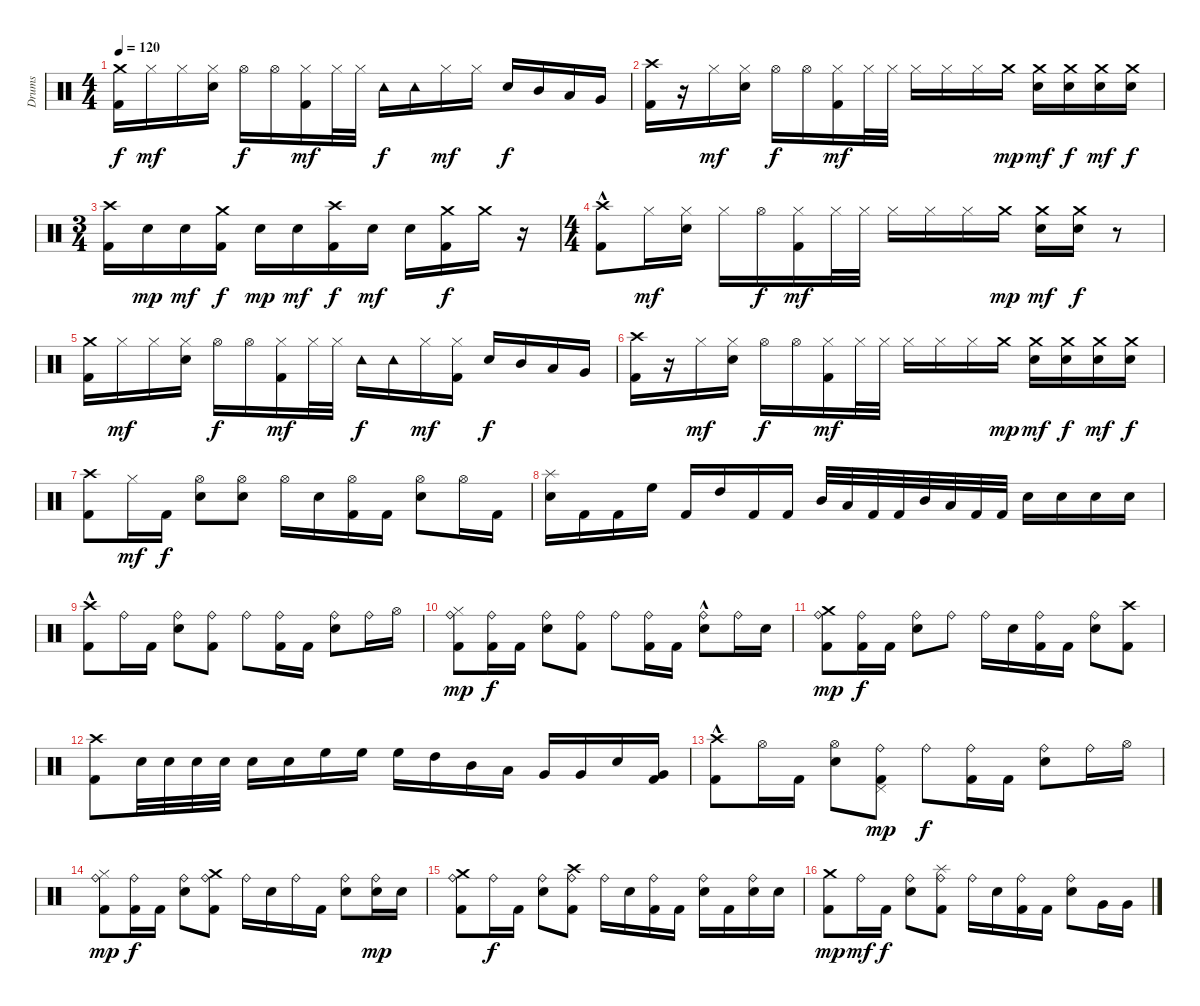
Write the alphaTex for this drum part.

\track ("Drums" "Drums") {instrument percussion}
\staff {score}
\articulation defaults
\ts (4 4)
\tempo 120
\clef neutral
\ks c
("Kick (hit) 2" "Crash medium (hit)").16{dy f} "Hi-Hat (closed)".16{dy mf} "Hi-Hat (closed)".16 ("Electric Snare (hit)" "Hi-Hat (closed)").16 "Hi-Hat (open)".16{dy f} "Hi-Hat (open)".16 ("Kick (hit) 2" "Hi-Hat (closed)").16{dy mf} "Hi-Hat (closed)".32 "Hi-Hat (closed)".32 "Tambourine (hit)".16{dy f} "Tambourine (hit)".16 "Hi-Hat (closed)".16{dy mf} "Hi-Hat (closed)".16 "Electric Snare (hit)".16{dy f} "Mid Tom (hit)".16 "Low Tom (hit)".16 "Very Low Tom (hit)".16 |
("Kick (hit) 2" "Crash high (hit)").16 r.16 "Hi-Hat (closed)".16{dy mf} ("Electric Snare (hit)" "Hi-Hat (closed)").16 "Hi-Hat (open)".16{dy f} "Hi-Hat (open)".16 ("Kick (hit) 2" "Hi-Hat (closed)").16{dy mf} "Hi-Hat (closed)".32 "Hi-Hat (closed)".32 "Hi-Hat (closed)".16 "Hi-Hat (closed)".16 "Hi-Hat (closed)".16 "Crash medium (hit)".16{dy mp} ("Electric Snare (hit)" "Crash medium (hit)").16{dy mf} ("Electric Snare (hit)" "Crash medium (hit)").16{dy f} ("Crash medium (hit)" "Electric Snare (hit)").16{dy mf} ("Electric Snare (hit)" "Crash medium (hit)").16{dy f} |
\ts (3 4)
("Kick (hit) 2" "Crash high (hit)").16 "Electric Snare (hit)".16{dy mp} "Electric Snare (hit)".16{dy mf} ("Kick (hit) 2" "Crash medium (hit)").16{dy f} "Electric Snare (hit)".16{dy mp} "Electric Snare (hit)".16{dy mf} ("Kick (hit) 2" "Crash high (hit)").16{dy f} "Electric Snare (hit)".16{dy mf} "Electric Snare (hit)".16 ("Kick (hit) 2" "Crash medium (hit)").16{dy f} "Crash medium (hit)".16 r.16 |
\ts (4 4)
("Kick (hit) 2"{hac} "Crash high (hit)").8 "Hi-Hat (closed)".16{dy mf} ("Electric Snare (hit)" "Hi-Hat (closed)").16 "Hi-Hat (closed)".16 "Hi-Hat (open)".16{dy f} ("Kick (hit) 2" "Hi-Hat (closed)").16{dy mf} "Hi-Hat (closed)".32 "Hi-Hat (closed)".32 "Hi-Hat (closed)".16 "Hi-Hat (closed)".16 "Hi-Hat (closed)".16 "Crash medium (hit)".16{dy mp} ("Electric Snare (hit)" "Crash medium (hit)").16{dy mf} ("Electric Snare (hit)" "Crash medium (hit)").16{dy f} r.8 |
("Crash medium (hit)" "Kick (hit) 2").16 "Hi-Hat (closed)".16{dy mf} "Hi-Hat (closed)".16 ("Electric Snare (hit)" "Hi-Hat (closed)").16 "Hi-Hat (open)".16{dy f} "Hi-Hat (open)".16 ("Kick (hit) 2" "Hi-Hat (closed)").16{dy mf} "Hi-Hat (closed)".32 "Hi-Hat (closed)".32 "Tambourine (hit)".16{dy f} "Tambourine (hit)".16 "Hi-Hat (closed)".16{dy mf} ("Kick (hit) 2" "Hi-Hat (closed)").16 "Electric Snare (hit)".16{dy f} "Mid Tom (hit)".16 "Low Tom (hit)".16 "Very Low Tom (hit)".16 |
("Crash high (hit)" "Kick (hit) 2").16 r.16 "Hi-Hat (closed)".16{dy mf} ("Electric Snare (hit)" "Hi-Hat (closed)").16 "Hi-Hat (open)".16{dy f} "Hi-Hat (open)".16 ("Kick (hit) 2" "Hi-Hat (closed)").16{dy mf} "Hi-Hat (closed)".32 "Hi-Hat (closed)".32 "Hi-Hat (closed)".16 "Hi-Hat (closed)".16 "Hi-Hat (closed)".16 "Crash medium (hit)".16{dy mp} ("Electric Snare (hit)" "Crash medium (hit)").16{dy mf} ("Electric Snare (hit)" "Crash medium (hit)").16{dy f} ("Crash medium (hit)" "Electric Snare (hit)").16{dy mf} ("Electric Snare (hit)" "Crash medium (hit)").16{dy f} |
("Crash high (hit)" "Kick (hit) 2").8 "Hi-Hat (closed)".16{dy mf} "Kick (hit) 2".16{dy f} ("Electric Snare (hit)" "Hi-Hat (open)").8 ("Hi-Hat (open)" "Electric Snare (hit)").8 "Hi-Hat (open)".16 "Electric Snare (hit)".16 ("Hi-Hat (open)" "Kick (hit) 2").16 "Kick (hit) 2".16 ("Electric Snare (hit)" "Hi-Hat (open)").8 "Hi-Hat (open)".16 "Kick (hit) 2".16 |
("Electric Snare (hit)" "Splash (hit)").16 "Kick (hit) 2".16 "Kick (hit) 2".16 "High Floor Tom (hit)".16 "Kick (hit) 2".16 "High Tom (hit)".16 "Kick (hit) 2".16 "Kick (hit) 2".16 "Mid Tom (hit)".32 "Low Tom (hit)".32 "Kick (hit) 2".32 "Kick (hit) 2".32 "Mid Tom (hit)".32 "Low Tom (hit)".32 "Kick (hit) 2".32 "Kick (hit) 2".32 "Electric Snare (hit)".16 "Electric Snare (hit)".16 "Electric Snare (hit)".16 "Electric Snare (hit)".16 |
("Crash high (hit)" "Kick (hit) 2"{hac}).8 "Ride (bell)".16 "Kick (hit) 2".16 ("Electric Snare (hit)" "Ride (bell)").8 ("Kick (hit) 2" "Ride (bell)").8 "Ride (bell)".8 ("Kick (hit) 2" "Ride (bell)").16 "Kick (hit) 2".16 ("Electric Snare (hit)" "Ride (bell)").8 "Ride (bell)".16 "Hi-Hat (open)".16 |
("Ride (bell)" "Hi-Hat (closed)" "Kick (hit) 2").8{dy mp} ("Ride (bell)" "Kick (hit) 2").16{dy f} "Kick (hit) 2".16 ("Electric Snare (hit)" "Ride (bell)").8 ("Kick (hit) 2" "Ride (bell)").8 "Ride (bell)".8 ("Kick (hit) 2" "Ride (bell)").16 "Kick (hit) 2".16 ("Ride (bell)" "Electric Snare (hit)"{hac}).8 "Ride (bell)".16 "Electric Snare (hit)".16 |
("Kick (hit) 2" "Ride (bell)" "Crash medium (hit)").8{dy mp} ("Ride (bell)" "Kick (hit) 2").16{dy f} "Kick (hit) 2".16 ("Electric Snare (hit)" "Ride (bell)").8 "Ride (bell)".8 "Ride (bell)".16 "Electric Snare (hit)".16 ("Kick (hit) 2" "Ride (bell)").16 "Kick (hit) 2".16 ("Ride (bell)" "Electric Snare (hit)").8 ("Crash high (hit)" "Kick (hit) 2").8 |
("Kick (hit) 2" "Crash high (hit)").8 "Electric Snare (hit)".32 "Electric Snare (hit)".32 "Electric Snare (hit)".32 "Electric Snare (hit)".32 "Electric Snare (hit)".16 "Electric Snare (hit)".16 "High Floor Tom (hit)".16 "High Floor Tom (hit)".16 "High Floor Tom (hit)".16 "High Tom (hit)".16 "Mid Tom (hit)".16 "Low Tom (hit)".16 "Very Low Tom (hit)".16 "Very Low Tom (hit)".16 "Electric Snare (hit)".16 ("Very Low Tom (hit)" "Kick (hit) 2").16 |
("Kick (hit) 2"{hac} "Crash high (hit)").8 "Hi-Hat (open)".16 "Kick (hit) 2".16 ("Electric Snare (hit)" "Hi-Hat (open)").8 ("Kick (hit) 2" "Pedal Hi-Hat (hit)" "Ride (bell)").8{dy mp} "Ride (bell)".8{dy f} ("Kick (hit) 2" "Ride (bell)").16 "Kick (hit) 2".16 ("Electric Snare (hit)" "Ride (bell)").8 "Ride (bell)".16 "Hi-Hat (open)".16 |
("Ride (bell)" "Hi-Hat (closed)" "Kick (hit) 2").8{dy mp} ("Ride (bell)" "Kick (hit) 2").16{dy f} "Kick (hit) 2".16 ("Electric Snare (hit)" "Ride (bell)").8 ("Kick (hit) 2" "Ride (bell)" "Crash medium (hit)").8 "Ride (bell)".16 "Electric Snare (hit)".16 "Ride (bell)".16 "Kick (hit) 2".16 ("Ride (bell)" "Electric Snare (hit)").8 ("Ride (bell)" "Electric Snare (hit)").16{dy mp} "Electric Snare (hit)".16 |
("Kick (hit) 2" "Ride (bell)" "Crash medium (hit)").8 "Ride (bell)".16{dy f} "Kick (hit) 2".16 ("Electric Snare (hit)" "Ride (bell)").8 ("Ride (bell)" "Kick (hit) 2" "Crash high (hit)").8 "Ride (bell)".16 "Electric Snare (hit)".16 ("Kick (hit) 2" "Ride (bell)").16 "Kick (hit) 2".16 ("Ride (bell)" "Electric Snare (hit)").16 "Kick (hit) 2".16 ("Electric Snare (hit)" "Ride (bell)").16 "Electric Snare (hit)".16 |
("Crash medium (hit)" "Kick (hit) 2").8{dy mp} "Ride (bell)".16{dy mf} "Kick (hit) 2".16{dy f} ("Electric Snare (hit)" "Ride (bell)").8 ("Ride (bell)" "Kick (hit) 2" "Splash (hit)").8 "Ride (bell)".16 "Electric Snare (hit)".16 ("Kick (hit) 2" "Ride (bell)").16 "Kick (hit) 2".16 ("Ride (bell)" "Electric Snare (hit)").8 "Very Low Tom (hit)".16 "Very Low Tom (hit)".16
